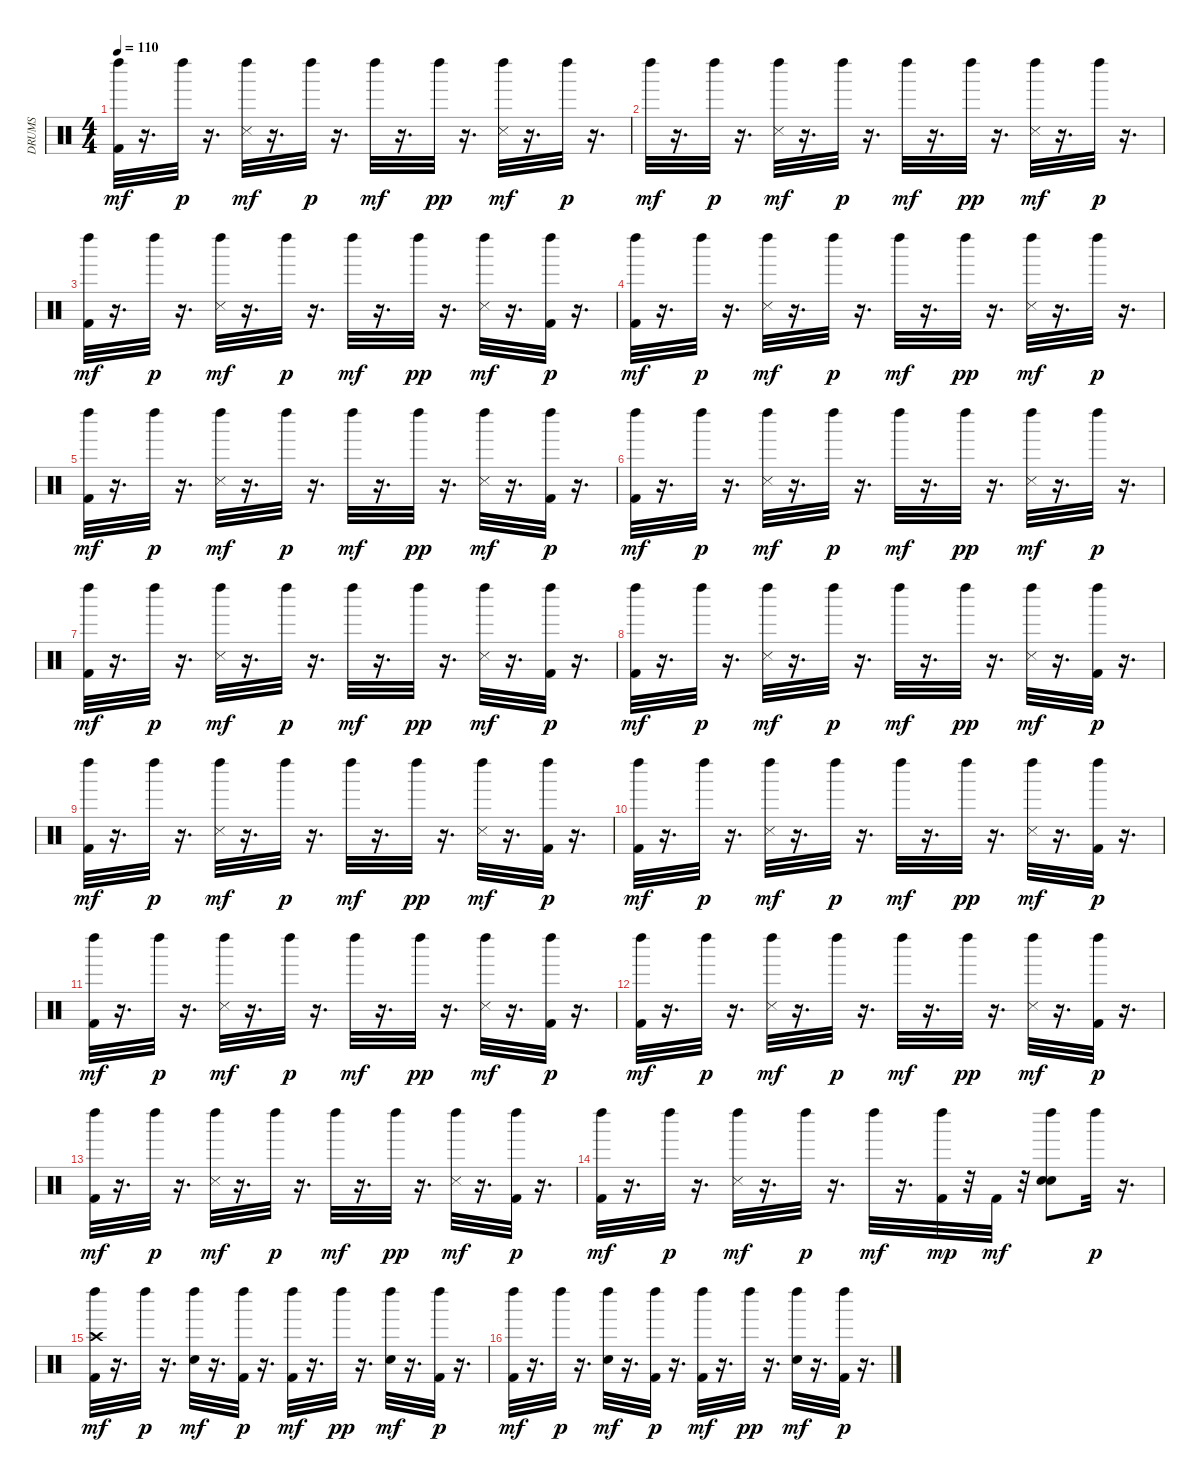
\track ("DRUMS" "DRUMS") {instrument percussion}
\staff {score}
\articulation defaults
\ts (4 4)
\tempo 110
\clef neutral
\ks c
("Kick (hit) 2" "Left Maraca (hit)").32{dy mf} r.16{d} "Left Maraca (hit)".32{dy p} r.16{d} ("Snare (side stick) 3" "Left Maraca (hit)").32{dy mf} r.16{d} "Left Maraca (hit)".32{dy p} r.16{d} "Left Maraca (hit)".32{dy mf} r.16{d} "Left Maraca (hit)".32{dy pp} r.16{d} ("Snare (side stick) 3" "Left Maraca (hit)").32{dy mf} r.16{d} "Left Maraca (hit)".32{dy p} r.16{d} |
"Left Maraca (hit)".32{dy mf} r.16{d} "Left Maraca (hit)".32{dy p} r.16{d} ("Snare (side stick) 3" "Left Maraca (hit)").32{dy mf} r.16{d} "Left Maraca (hit)".32{dy p} r.16{d} "Left Maraca (hit)".32{dy mf} r.16{d} "Left Maraca (hit)".32{dy pp} r.16{d} ("Snare (side stick) 3" "Left Maraca (hit)").32{dy mf} r.16{d} "Left Maraca (hit)".32{dy p} r.16{d} |
("Kick (hit) 2" "Left Maraca (hit)").32{dy mf} r.16{d} "Left Maraca (hit)".32{dy p} r.16{d} ("Snare (side stick) 3" "Left Maraca (hit)").32{dy mf} r.16{d} "Left Maraca (hit)".32{dy p} r.16{d} "Left Maraca (hit)".32{dy mf} r.16{d} "Left Maraca (hit)".32{dy pp} r.16{d} ("Snare (side stick) 3" "Left Maraca (hit)").32{dy mf} r.16{d} ("Kick (hit) 2" "Left Maraca (hit)").32{dy p} r.16{d} |
("Kick (hit) 2" "Left Maraca (hit)").32{dy mf} r.16{d} "Left Maraca (hit)".32{dy p} r.16{d} ("Snare (side stick) 3" "Left Maraca (hit)").32{dy mf} r.16{d} "Left Maraca (hit)".32{dy p} r.16{d} "Left Maraca (hit)".32{dy mf} r.16{d} "Left Maraca (hit)".32{dy pp} r.16{d} ("Snare (side stick) 3" "Left Maraca (hit)").32{dy mf} r.16{d} "Left Maraca (hit)".32{dy p} r.16{d} |
("Kick (hit) 2" "Left Maraca (hit)").32{dy mf} r.16{d} "Left Maraca (hit)".32{dy p} r.16{d} ("Snare (side stick) 3" "Left Maraca (hit)").32{dy mf} r.16{d} "Left Maraca (hit)".32{dy p} r.16{d} "Left Maraca (hit)".32{dy mf} r.16{d} "Left Maraca (hit)".32{dy pp} r.16{d} ("Snare (side stick) 3" "Left Maraca (hit)").32{dy mf} r.16{d} ("Kick (hit) 2" "Left Maraca (hit)").32{dy p} r.16{d} |
("Kick (hit) 2" "Left Maraca (hit)").32{dy mf} r.16{d} "Left Maraca (hit)".32{dy p} r.16{d} ("Snare (side stick) 3" "Left Maraca (hit)").32{dy mf} r.16{d} "Left Maraca (hit)".32{dy p} r.16{d} "Left Maraca (hit)".32{dy mf} r.16{d} "Left Maraca (hit)".32{dy pp} r.16{d} ("Snare (side stick) 3" "Left Maraca (hit)").32{dy mf} r.16{d} "Left Maraca (hit)".32{dy p} r.16{d} |
("Kick (hit) 2" "Left Maraca (hit)").32{dy mf} r.16{d} "Left Maraca (hit)".32{dy p} r.16{d} ("Snare (side stick) 3" "Left Maraca (hit)").32{dy mf} r.16{d} "Left Maraca (hit)".32{dy p} r.16{d} "Left Maraca (hit)".32{dy mf} r.16{d} "Left Maraca (hit)".32{dy pp} r.16{d} ("Snare (side stick) 3" "Left Maraca (hit)").32{dy mf} r.16{d} ("Kick (hit) 2" "Left Maraca (hit)").32{dy p} r.16{d} |
("Kick (hit) 2" "Left Maraca (hit)").32{dy mf} r.16{d} "Left Maraca (hit)".32{dy p} r.16{d} ("Snare (side stick) 3" "Left Maraca (hit)").32{dy mf} r.16{d} "Left Maraca (hit)".32{dy p} r.16{d} "Left Maraca (hit)".32{dy mf} r.16{d} "Left Maraca (hit)".32{dy pp} r.16{d} ("Snare (side stick) 3" "Left Maraca (hit)").32{dy mf} r.16{d} ("Kick (hit) 2" "Left Maraca (hit)").32{dy p} r.16{d} |
("Kick (hit) 2" "Left Maraca (hit)").32{dy mf} r.16{d} "Left Maraca (hit)".32{dy p} r.16{d} ("Snare (side stick) 3" "Left Maraca (hit)").32{dy mf} r.16{d} "Left Maraca (hit)".32{dy p} r.16{d} "Left Maraca (hit)".32{dy mf} r.16{d} "Left Maraca (hit)".32{dy pp} r.16{d} ("Snare (side stick) 3" "Left Maraca (hit)").32{dy mf} r.16{d} ("Kick (hit) 2" "Left Maraca (hit)").32{dy p} r.16{d} |
("Kick (hit) 2" "Left Maraca (hit)").32{dy mf} r.16{d} "Left Maraca (hit)".32{dy p} r.16{d} ("Snare (side stick) 3" "Left Maraca (hit)").32{dy mf} r.16{d} "Left Maraca (hit)".32{dy p} r.16{d} "Left Maraca (hit)".32{dy mf} r.16{d} "Left Maraca (hit)".32{dy pp} r.16{d} ("Snare (side stick) 3" "Left Maraca (hit)").32{dy mf} r.16{d} ("Kick (hit) 2" "Left Maraca (hit)").32{dy p} r.16{d} |
("Kick (hit) 2" "Left Maraca (hit)").32{dy mf} r.16{d} "Left Maraca (hit)".32{dy p} r.16{d} ("Snare (side stick) 3" "Left Maraca (hit)").32{dy mf} r.16{d} "Left Maraca (hit)".32{dy p} r.16{d} "Left Maraca (hit)".32{dy mf} r.16{d} "Left Maraca (hit)".32{dy pp} r.16{d} ("Snare (side stick) 3" "Left Maraca (hit)").32{dy mf} r.16{d} ("Kick (hit) 2" "Left Maraca (hit)").32{dy p} r.16{d} |
("Kick (hit) 2" "Left Maraca (hit)").32{dy mf} r.16{d} "Left Maraca (hit)".32{dy p} r.16{d} ("Snare (side stick) 3" "Left Maraca (hit)").32{dy mf} r.16{d} "Left Maraca (hit)".32{dy p} r.16{d} "Left Maraca (hit)".32{dy mf} r.16{d} "Left Maraca (hit)".32{dy pp} r.16{d} ("Snare (side stick) 3" "Left Maraca (hit)").32{dy mf} r.16{d} ("Kick (hit) 2" "Left Maraca (hit)").32{dy p} r.16{d} |
("Kick (hit) 2" "Left Maraca (hit)").32{dy mf} r.16{d} "Left Maraca (hit)".32{dy p} r.16{d} ("Snare (side stick) 3" "Left Maraca (hit)").32{dy mf} r.16{d} "Left Maraca (hit)".32{dy p} r.16{d} "Left Maraca (hit)".32{dy mf} r.16{d} "Left Maraca (hit)".32{dy pp} r.16{d} ("Snare (side stick) 3" "Left Maraca (hit)").32{dy mf} r.16{d} ("Kick (hit) 2" "Left Maraca (hit)").32{dy p} r.16{d} |
("Kick (hit) 2" "Left Maraca (hit)").32{dy mf} r.16{d} "Left Maraca (hit)".32{dy p} r.16{d} ("Snare (side stick) 3" "Left Maraca (hit)").32{dy mf} r.16{d} "Left Maraca (hit)".32{dy p} r.16{d} "Left Maraca (hit)".32{dy mf} r.16{d} ("Left Maraca (hit)" "Kick (hit) 2").32{dy mp} r.32 "Kick (hit) 2".32{dy mf} r.32 ("Snare (hit) 2" "Snare (hit) 2" "Left Maraca (hit)").8 "Left Maraca (hit)".32{dy p} r.16{d} |
("Kick (hit) 2" "Crash high (hit)" "Left Maraca (hit)").32{dy mf} r.16{d} "Left Maraca (hit)".32{dy p} r.16{d} ("Snare (hit) 2" "Left Maraca (hit)").32{dy mf} r.16{d} ("Kick (hit) 2" "Left Maraca (hit)").32{dy p} r.16{d} ("Kick (hit) 2" "Left Maraca (hit)").32{dy mf} r.16{d} "Left Maraca (hit)".32{dy pp} r.16{d} ("Snare (hit) 2" "Left Maraca (hit)").32{dy mf} r.16{d} ("Kick (hit) 2" "Left Maraca (hit)").32{dy p} r.16{d} |
("Kick (hit) 2" "Left Maraca (hit)").32{dy mf} r.16{d} "Left Maraca (hit)".32{dy p} r.16{d} ("Snare (hit) 2" "Left Maraca (hit)").32{dy mf} r.16{d} ("Kick (hit) 2" "Left Maraca (hit)").32{dy p} r.16{d} ("Kick (hit) 2" "Left Maraca (hit)").32{dy mf} r.16{d} "Left Maraca (hit)".32{dy pp} r.16{d} ("Snare (hit) 2" "Left Maraca (hit)").32{dy mf} r.16{d} ("Kick (hit) 2" "Left Maraca (hit)").32{dy p} r.16{d}
